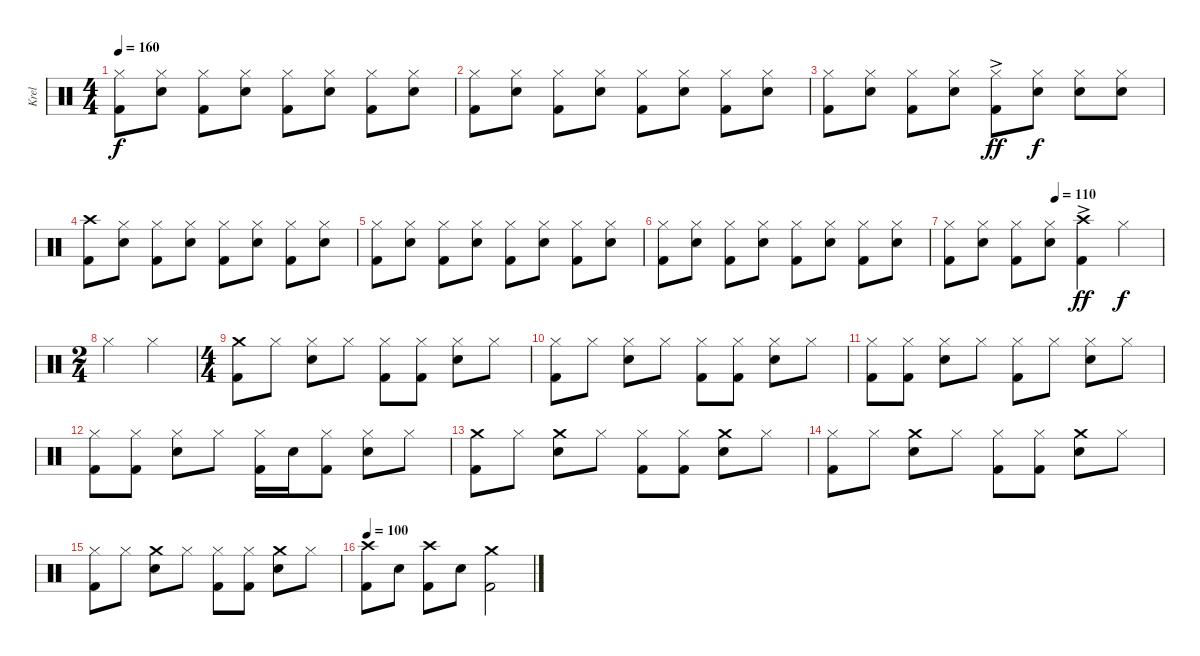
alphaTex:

\track ("Krel" "Krel") {instrument percussion}
\staff {score}
\articulation defaults
\ts (4 4)
\tempo 160
\clef neutral
\ks c
("Hi-Hat (closed)" "Kick (hit) 2").8{dy f} ("Hi-Hat (closed)" "Snare (hit) 2").8 ("Hi-Hat (closed)" "Kick (hit) 2").8 ("Hi-Hat (closed)" "Snare (hit) 2").8 ("Hi-Hat (closed)" "Kick (hit) 2").8 ("Hi-Hat (closed)" "Snare (hit) 2").8 ("Hi-Hat (closed)" "Kick (hit) 2").8 ("Hi-Hat (closed)" "Snare (hit) 2").8 |
("Hi-Hat (closed)" "Kick (hit) 2").8 ("Hi-Hat (closed)" "Snare (hit) 2").8 ("Hi-Hat (closed)" "Kick (hit) 2").8 ("Hi-Hat (closed)" "Snare (hit) 2").8 ("Hi-Hat (closed)" "Kick (hit) 2").8 ("Hi-Hat (closed)" "Snare (hit) 2").8 ("Hi-Hat (closed)" "Kick (hit) 2").8 ("Hi-Hat (closed)" "Snare (hit) 2").8 |
("Hi-Hat (closed)" "Kick (hit) 2").8 ("Hi-Hat (closed)" "Snare (hit) 2").8 ("Hi-Hat (closed)" "Kick (hit) 2").8 ("Hi-Hat (closed)" "Snare (hit) 2").8 ("Hi-Hat (closed)" "Kick (hit) 2"{ac}).8{dy ff} ("Hi-Hat (closed)" "Snare (hit) 2").8{dy f} ("Hi-Hat (closed)" "Snare (hit) 2").8 ("Hi-Hat (closed)" "Snare (hit) 2").8 |
("Crash high (hit)" "Kick (hit) 2").8 ("Hi-Hat (closed)" "Snare (hit) 2").8 ("Hi-Hat (closed)" "Kick (hit) 2").8 ("Hi-Hat (closed)" "Snare (hit) 2").8 ("Hi-Hat (closed)" "Kick (hit) 2").8 ("Hi-Hat (closed)" "Snare (hit) 2").8 ("Hi-Hat (closed)" "Kick (hit) 2").8 ("Hi-Hat (closed)" "Snare (hit) 2").8 |
("Hi-Hat (closed)" "Kick (hit) 2").8 ("Hi-Hat (closed)" "Snare (hit) 2").8 ("Hi-Hat (closed)" "Kick (hit) 2").8 ("Hi-Hat (closed)" "Snare (hit) 2").8 ("Hi-Hat (closed)" "Kick (hit) 2").8 ("Hi-Hat (closed)" "Snare (hit) 2").8 ("Hi-Hat (closed)" "Kick (hit) 2").8 ("Hi-Hat (closed)" "Snare (hit) 2").8 |
("Hi-Hat (closed)" "Kick (hit) 2").8 ("Hi-Hat (closed)" "Snare (hit) 2").8 ("Hi-Hat (closed)" "Kick (hit) 2").8 ("Hi-Hat (closed)" "Snare (hit) 2").8 ("Hi-Hat (closed)" "Kick (hit) 2").8 ("Hi-Hat (closed)" "Snare (hit) 2").8 ("Hi-Hat (closed)" "Kick (hit) 2").8 ("Hi-Hat (closed)" "Snare (hit) 2").8 |
\tempo (110 0.5)
("Hi-Hat (closed)" "Kick (hit) 2").8 ("Hi-Hat (closed)" "Snare (hit) 2").8 ("Hi-Hat (closed)" "Kick (hit) 2").8 ("Hi-Hat (closed)" "Snare (hit) 2").8 ("Crash high (hit)" "Kick (hit) 2"{ac}).4{dy ff} "Hi-Hat (closed)".4{dy f} |
\ts (2 4)
"Hi-Hat (closed)".4 "Hi-Hat (closed)".4 |
\ts (4 4)
("Crash medium (hit)" "Kick (hit) 2").8 "Hi-Hat (closed)".8 ("Hi-Hat (closed)" "Snare (hit) 2").8 "Hi-Hat (closed)".8 ("Hi-Hat (closed)" "Kick (hit) 2").8 ("Hi-Hat (closed)" "Kick (hit) 2").8 ("Hi-Hat (closed)" "Snare (hit) 2").8 "Hi-Hat (closed)".8 |
("Hi-Hat (closed)" "Kick (hit) 2").8 "Hi-Hat (closed)".8 ("Hi-Hat (closed)" "Snare (hit) 2").8 "Hi-Hat (closed)".8 ("Hi-Hat (closed)" "Kick (hit) 2").8 ("Hi-Hat (closed)" "Kick (hit) 2").8 ("Hi-Hat (closed)" "Snare (hit) 2").8 "Hi-Hat (closed)".8 |
("Hi-Hat (closed)" "Kick (hit) 2").8 ("Hi-Hat (closed)" "Kick (hit) 2").8 ("Hi-Hat (closed)" "Snare (hit) 2").8 "Hi-Hat (closed)".8 ("Hi-Hat (closed)" "Kick (hit) 2").8 "Hi-Hat (closed)".8 ("Hi-Hat (closed)" "Snare (hit) 2").8 "Hi-Hat (closed)".8 |
("Hi-Hat (closed)" "Kick (hit) 2").8 ("Hi-Hat (closed)" "Kick (hit) 2").8 ("Hi-Hat (closed)" "Snare (hit) 2").8 "Hi-Hat (closed)".8 ("Hi-Hat (closed)" "Kick (hit) 2").16 "Snare (hit) 2".16 ("Hi-Hat (closed)" "Kick (hit) 2").8 ("Hi-Hat (closed)" "Snare (hit) 2").8 "Hi-Hat (closed)".8 |
("Crash medium (hit)" "Kick (hit) 2").8 "Hi-Hat (closed)".8 ("Crash medium (hit)" "Snare (hit) 2").8 "Hi-Hat (closed)".8 ("Hi-Hat (closed)" "Kick (hit) 2").8 ("Hi-Hat (closed)" "Kick (hit) 2").8 ("Crash medium (hit)" "Snare (hit) 2").8 "Hi-Hat (closed)".8 |
("Hi-Hat (closed)" "Kick (hit) 2").8 "Hi-Hat (closed)".8 ("Crash medium (hit)" "Snare (hit) 2").8 "Hi-Hat (closed)".8 ("Hi-Hat (closed)" "Kick (hit) 2").8 ("Hi-Hat (closed)" "Kick (hit) 2").8 ("Crash medium (hit)" "Snare (hit) 2").8 "Hi-Hat (closed)".8 |
("Hi-Hat (closed)" "Kick (hit) 2").8 "Hi-Hat (closed)".8 ("Crash medium (hit)" "Snare (hit) 2").8 "Hi-Hat (closed)".8 ("Hi-Hat (closed)" "Kick (hit) 2").8 ("Hi-Hat (closed)" "Kick (hit) 2").8 ("Crash medium (hit)" "Snare (hit) 2").8 "Hi-Hat (closed)".8 |
\tempo 100
("Crash high (hit)" "Kick (hit) 2").8 "Snare (hit) 2".8 ("Crash high (hit)" "Kick (hit) 2").8 "Snare (hit) 2".8 ("Crash medium (hit)" "Kick (hit) 2").2
